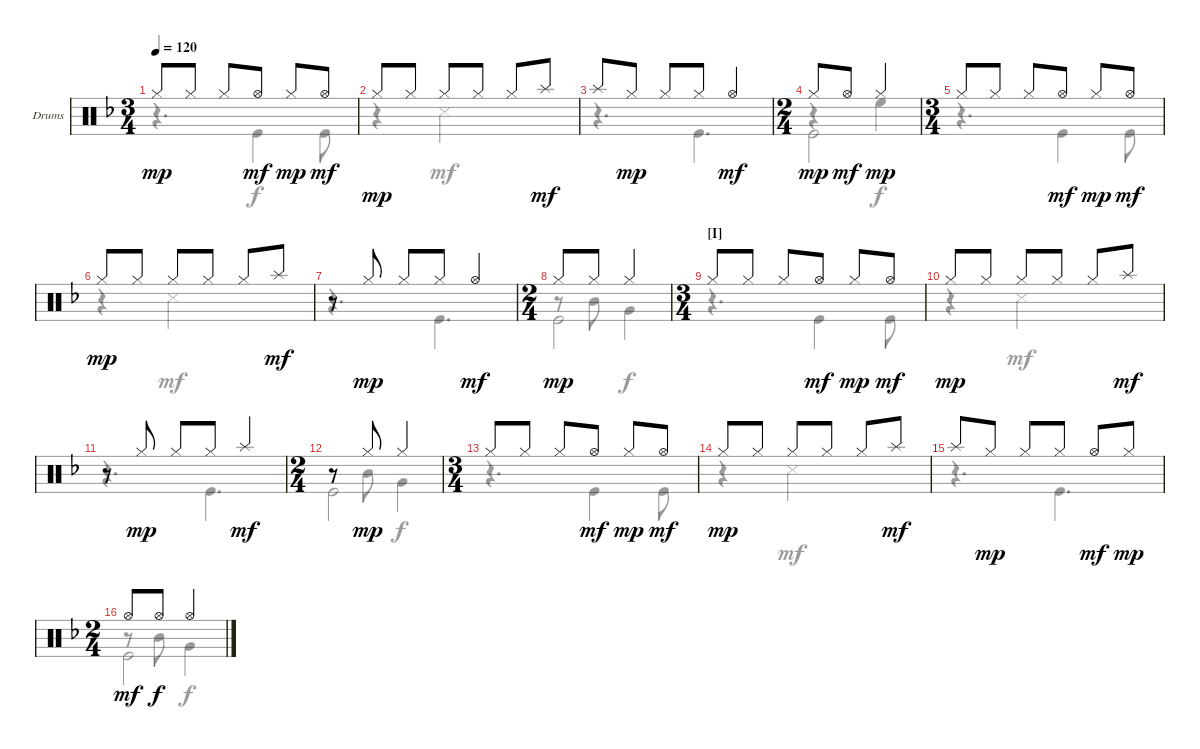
\defaultSystemsLayout 4
\bracketExtendMode groupsimilarinstruments
\firstSystemTrackNameOrientation horizontal
\otherSystemsTrackNameOrientation horizontal
\track ("Drumkit" "Drums") {instrument percussion}
\staff {score}
\articulation defaults
\voice
\ts (3 4)
\tempo 120
\clef neutral
\ks f "Hi-Hat (closed)".8{dy mp} "Hi-Hat (closed)".8 "Hi-Hat (closed)".8 "Hi-Hat (open)".8{dy mf} "Hi-Hat (closed)".8{dy mp} "Hi-Hat (open)".8{dy mf}
|
"Hi-Hat (closed)".8{dy mp} "Hi-Hat (closed)".8 "Hi-Hat (closed)".8 "Hi-Hat (closed)".8 "Hi-Hat (closed)".8 "Splash (hit)".8{dy mf} |
"Splash (hit)".8 "Hi-Hat (closed)".8{dy mp} "Hi-Hat (closed)".8 "Hi-Hat (closed)".8 "Hi-Hat (open)".4{dy mf} |
\ts (2 4)
"Hi-Hat (closed)".8{dy mp} "Hi-Hat (open)".8{dy mf} "Hi-Hat (closed)".4{dy mp} |
\ts (3 4)
"Hi-Hat (closed)".8 "Hi-Hat (closed)".8 "Hi-Hat (closed)".8 "Hi-Hat (open)".8{dy mf} "Hi-Hat (closed)".8{dy mp} "Hi-Hat (open)".8{dy mf} |
"Hi-Hat (closed)".8{dy mp} "Hi-Hat (closed)".8 "Hi-Hat (closed)".8 "Hi-Hat (closed)".8 "Hi-Hat (closed)".8 "Splash (hit)".8{dy mf} |
r.8 "Hi-Hat (closed)".8{dy mp} "Hi-Hat (closed)".8 "Hi-Hat (closed)".8 "Hi-Hat (open)".4{dy mf} |
\ts (2 4)
"Hi-Hat (closed)".8{dy mp} "Hi-Hat (closed)".8 "Hi-Hat (closed)".4 |
\ts (3 4)
\section ("I" "")
"Hi-Hat (closed)".8 "Hi-Hat (closed)".8 "Hi-Hat (closed)".8 "Hi-Hat (open)".8{dy mf} "Hi-Hat (closed)".8{dy mp} "Hi-Hat (open)".8{dy mf} |
"Hi-Hat (closed)".8{dy mp} "Hi-Hat (closed)".8 "Hi-Hat (closed)".8 "Hi-Hat (closed)".8 "Hi-Hat (closed)".8 "Splash (hit)".8{dy mf} |
r.8 "Hi-Hat (closed)".8{dy mp} "Hi-Hat (closed)".8 "Hi-Hat (closed)".8 "Splash (hit)".4{dy mf} |
\ts (2 4)
r.8 "Hi-Hat (closed)".8{dy mp} "Hi-Hat (closed)".4 |
\ts (3 4)
"Hi-Hat (closed)".8 "Hi-Hat (closed)".8 "Hi-Hat (closed)".8 "Hi-Hat (open)".8{dy mf} "Hi-Hat (closed)".8{dy mp} "Hi-Hat (open)".8{dy mf} |
"Hi-Hat (closed)".8{dy mp} "Hi-Hat (closed)".8 "Hi-Hat (closed)".8 "Hi-Hat (closed)".8 "Hi-Hat (closed)".8 "Splash (hit)".8{dy mf} |
"Splash (hit)".8 "Hi-Hat (closed)".8{dy mp} "Hi-Hat (closed)".8 "Hi-Hat (closed)".8 "Hi-Hat (open)".8{dy mf} "Hi-Hat (closed)".8{dy mp} |
\ts (2 4)
"Hi-Hat (open)".8{dy mf} "Hi-Hat (open)".8{dy f} "Hi-Hat (open)".4
\voice
\clef neutral
\ottava regular
\simile none
\ks f
|
r.4 "Snare (side stick) 3".2{dy mf} |
|
r.4 "High Floor Tom (hit)".4{dy f} |
|
r.4 "Snare (side stick) 3".2{dy mf} |
|
r.8 "Mid Tom (hit)".8 "Very Low Tom (hit)".4{dy f} |
|
r.4 "Snare (side stick) 3".2{dy mf} |
|
r.8 "Mid Tom (hit)".8 "Very Low Tom (hit)".4{dy f} |
|
r.4 "Snare (side stick) 3".2{dy mf} |
|
r.8 "Mid Tom (hit)".8 "Very Low Tom (hit)".4{dy f}
\voice
\clef neutral
\ottava regular
\simile none
\ks f
r.4{d dy f} "Kick (hit)".4 "Kick (hit)".8 |
|
r.4{d} "Kick (hit)".4{d} |
"Kick (hit)".2 |
r.4{d} "Kick (hit)".4 "Kick (hit)".8 |
|
r.4{d} "Kick (hit)".4{d} |
"Kick (hit)".2 |
r.4{d} "Kick (hit)".4 "Kick (hit)".8 |
|
r.4{d} "Kick (hit)".4{d} |
"Kick (hit)".2 |
r.4{d} "Kick (hit)".4 "Kick (hit)".8 |
|
r.4{d} "Kick (hit)".4{d} |
"Kick (hit)".2
